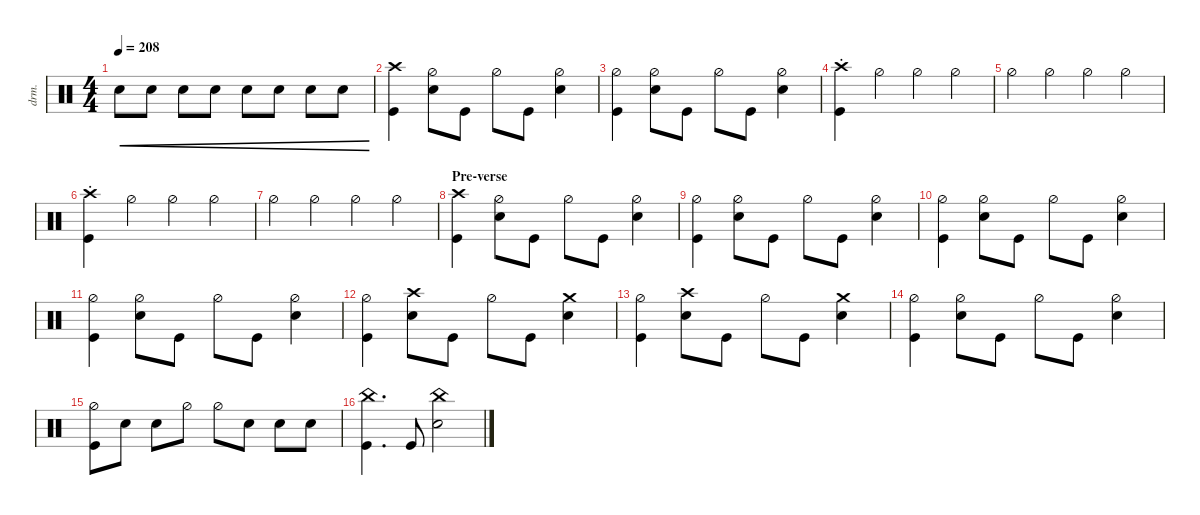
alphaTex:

\defaultSystemsLayout 4
\hideDynamics
\bracketExtendMode nobrackets
\otherSystemsTrackNameOrientation horizontal
\track ("Drums" "drm.") {multiBarRest instrument percussion}
\staff
\articulation defaults
\ts (4 4)
\tempo 208
\clef neutral
\ks c "Snare (hit) 2".8{cre dy f} "Snare (hit) 2".8{cre} "Snare (hit) 2".8{cre} "Snare (hit) 2".8{cre} "Snare (hit) 2".8{cre} "Snare (hit) 2".8{cre} "Snare (hit) 2".8{cre} "Snare (hit) 2".8{cre}
|
("Crash high (hit)" "Kick (hit)").4 ("Snare (hit) 2" "Hi-Hat (half)").8 "Kick (hit)".8 "Hi-Hat (half)".8 "Kick (hit)".8 ("Snare (hit) 2" "Hi-Hat (half)").4 |
("Kick (hit)" "Hi-Hat (half)").4 ("Snare (hit) 2" "Hi-Hat (half)").8 "Kick (hit)".8 "Hi-Hat (half)".8 "Kick (hit)".8 ("Snare (hit) 2" "Hi-Hat (half)").4 |
("Kick (hit)" "Crash high (hit)"{st}).4 "Hi-Hat (half)".4 "Hi-Hat (half)".4 "Hi-Hat (half)".4 |
"Hi-Hat (half)".4 "Hi-Hat (half)".4 "Hi-Hat (half)".4 "Hi-Hat (half)".4 |
("Kick (hit)" "Crash high (hit)"{st}).4 "Hi-Hat (half)".4 "Hi-Hat (half)".4 "Hi-Hat (half)".4 |
"Hi-Hat (half)".4 "Hi-Hat (half)".4 "Hi-Hat (half)".4 "Hi-Hat (half)".4 |
\section ("" "Pre-verse")
("Crash high (hit)" "Kick (hit)").4 ("Snare (hit) 2" "Hi-Hat (half)").8 "Kick (hit)".8 "Hi-Hat (half)".8 "Kick (hit)".8 ("Snare (hit) 2" "Hi-Hat (half)").4 |
("Kick (hit)" "Hi-Hat (half)").4 ("Snare (hit) 2" "Hi-Hat (half)").8 "Kick (hit)".8 "Hi-Hat (half)".8 "Kick (hit)".8 ("Snare (hit) 2" "Hi-Hat (half)").4 |
("Kick (hit)" "Hi-Hat (half)").4 ("Snare (hit) 2" "Hi-Hat (half)").8 "Kick (hit)".8 "Hi-Hat (half)".8 "Kick (hit)".8 ("Snare (hit) 2" "Hi-Hat (half)").4 |
("Kick (hit)" "Hi-Hat (half)").4 ("Snare (hit) 2" "Hi-Hat (half)").8 "Kick (hit)".8 "Hi-Hat (half)".8 "Kick (hit)".8 ("Snare (hit) 2" "Hi-Hat (half)").4 |
("Kick (hit)" "Hi-Hat (half)").4 ("Snare (hit) 2" "Crash high (hit)").8 "Kick (hit)".8 "Hi-Hat (half)".8 "Kick (hit)".8 ("Snare (hit) 2" "Crash medium (hit)").4 |
("Kick (hit)" "Hi-Hat (half)").4 ("Snare (hit) 2" "Crash high (hit)").8 "Kick (hit)".8 "Hi-Hat (half)".8 "Kick (hit)".8 ("Snare (hit) 2" "Crash medium (hit)").4 |
("Kick (hit)" "Hi-Hat (half)").4 ("Snare (hit) 2" "Hi-Hat (half)").8 "Kick (hit)".8 "Hi-Hat (half)".8 "Kick (hit)".8 ("Snare (hit) 2" "Hi-Hat (half)").4 |
("Hi-Hat (half)" "Kick (hit)").8 "Snare (hit) 2".8 "Snare (hit) 2".8 "Hi-Hat (half)".8 "Hi-Hat (half)".8 "Snare (hit) 2".8 "Snare (hit) 2".8 "Snare (hit) 2".8 |
("China (hit)" "Kick (hit)").4{d} "Kick (hit)".8 ("Snare (hit) 2" "China (hit)").2
